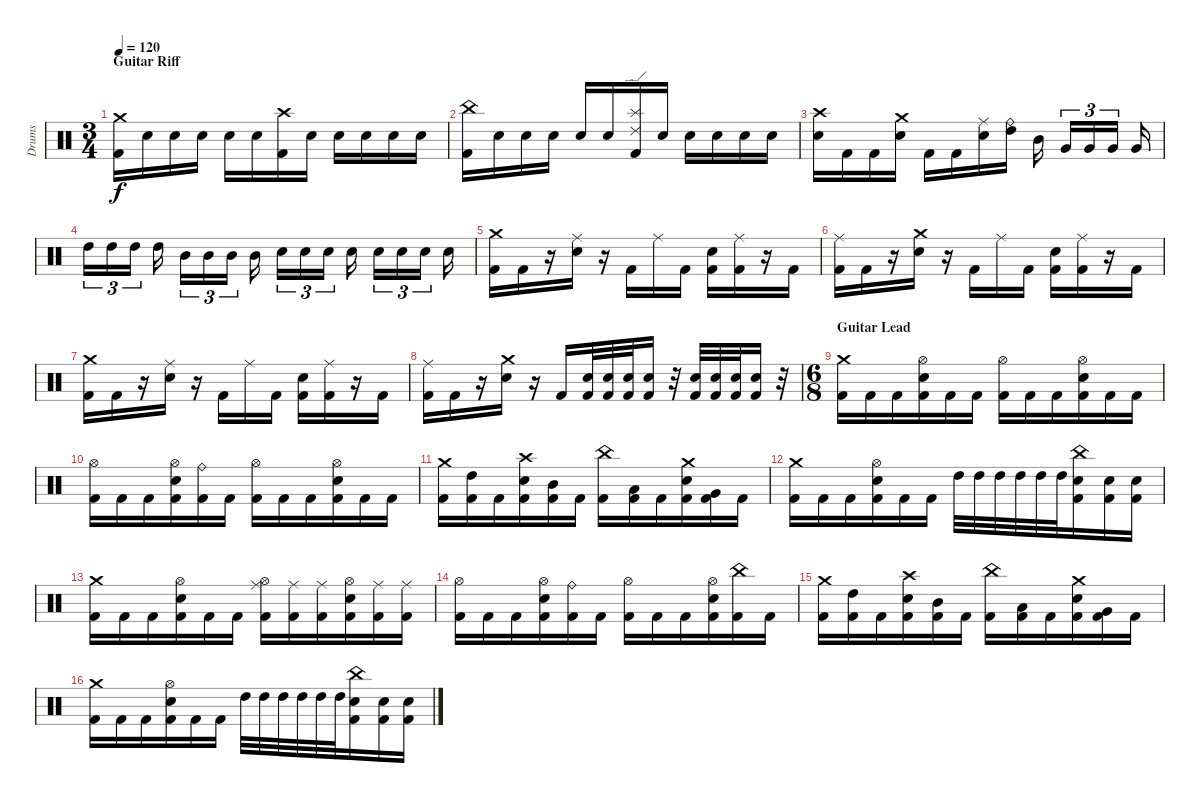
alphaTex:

\track ("Drums" "Drums") {instrument percussion}
\staff {score}
\articulation defaults
\ts (3 4)
\section ("" "Guitar Riff")
\tempo 120
\clef neutral
\ks c
("Crash medium (hit)" "Kick (hit) 2").16{dy f} "Electric Snare (hit)".16 "Electric Snare (hit)".16 "Electric Snare (hit)".16 "Electric Snare (hit)".16 "Electric Snare (hit)".16 ("Crash high (hit)" "Kick (hit) 2").16 "Electric Snare (hit)".16 "Electric Snare (hit)".16 "Electric Snare (hit)".16 "Electric Snare (hit)".16 "Electric Snare (hit)".16 |
("China (hit)" "Kick (hit) 2").16 "Electric Snare (hit)".16 "Electric Snare (hit)".16 "Electric Snare (hit)".16 "Electric Snare (hit)".16 "Electric Snare (hit)".16 ("Splash (hit)" "Ride (edge) 2" "Kick (hit) 2").16 "Electric Snare (hit)".16 "Electric Snare (hit)".16 "Electric Snare (hit)".16 "Electric Snare (hit)".16 "Electric Snare (hit)".16 |
("Crash high (hit)" "Electric Snare (hit)").16 "Kick (hit) 2".16 "Kick (hit) 2".16 ("Crash medium (hit)" "Electric Snare (hit)").16 "Kick (hit) 2".16 "Kick (hit) 2".16 ("Ride (middle)" "Electric Snare (hit)").16 ("Ride (bell)" "High Tom (hit)").16 "Mid Tom (hit)".16 "Very Low Tom (hit)".16{tu (3 2)} "Very Low Tom (hit)".16{tu (3 2)} "Very Low Tom (hit)".16{tu (3 2)} "Very Low Tom (hit)".16 |
"High Tom (hit)".16{tu (3 2)} "High Tom (hit)".16{tu (3 2)} "High Tom (hit)".16{tu (3 2)} "High Tom (hit)".16 "Mid Tom (hit)".16{tu (3 2)} "Mid Tom (hit)".16{tu (3 2)} "Mid Tom (hit)".16{tu (3 2)} "Mid Tom (hit)".16 "Electric Snare (hit)".16{tu (3 2)} "Electric Snare (hit)".16{tu (3 2)} "Electric Snare (hit)".16{tu (3 2)} "Electric Snare (hit)".16 "Electric Snare (hit)".16{tu (3 2)} "Electric Snare (hit)".16{tu (3 2)} "Electric Snare (hit)".16{tu (3 2)} "Electric Snare (hit)".16 |
("Crash medium (hit)" "Kick (hit) 2").16 "Kick (hit) 2".16 r.16 ("Ride (middle)" "Electric Snare (hit)").16 r.16 "Kick (hit) 2".16 "Ride (middle)".16 "Kick (hit) 2".16 ("Electric Snare (hit)" "Kick (hit) 2").16 ("Ride (middle)" "Kick (hit) 2").16 r.16 "Kick (hit) 2".16 |
("Ride (middle)" "Kick (hit) 2").16 "Kick (hit) 2".16 r.16 ("Crash medium (hit)" "Electric Snare (hit)").16 r.16 "Kick (hit) 2".16 "Ride (middle)".16 "Kick (hit) 2".16 ("Electric Snare (hit)" "Kick (hit) 2").16 ("Ride (middle)" "Kick (hit) 2").16 r.16 "Kick (hit) 2".16 |
("Crash medium (hit)" "Kick (hit) 2").16 "Kick (hit) 2".16 r.16 ("Ride (middle)" "Electric Snare (hit)").16 r.16 "Kick (hit) 2".16 "Ride (middle)".16 "Kick (hit) 2".16 ("Electric Snare (hit)" "Kick (hit) 2").16 ("Ride (middle)" "Kick (hit) 2").16 r.16 "Kick (hit) 2".16 |
("Ride (middle)" "Kick (hit) 2").16 "Kick (hit) 2".16 r.16 ("Crash medium (hit)" "Electric Snare (hit)").16 r.16 "Kick (hit) 2".16 ("Electric Snare (hit)" "Kick (hit) 2").32 ("Electric Snare (hit)" "Kick (hit) 2").32 ("Electric Snare (hit)" "Kick (hit) 2").32 ("Electric Snare (hit)" "Kick (hit) 2").16 r.32 ("Electric Snare (hit)" "Kick (hit) 2").32 ("Electric Snare (hit)" "Kick (hit) 2").32 ("Electric Snare (hit)" "Kick (hit) 2").32 ("Electric Snare (hit)" "Kick (hit) 2").16 r.32 |
\ts (6 8)
\section ("" "Guitar Lead")
("Crash medium (hit)" "Kick (hit) 2").16 "Kick (hit) 2".16 "Kick (hit) 2".16 ("Hi-Hat (open)" "Electric Snare (hit)" "Kick (hit) 2").16 "Kick (hit) 2".16 "Kick (hit) 2".16 ("Hi-Hat (open)" "Kick (hit) 2").16 "Kick (hit) 2".16 "Kick (hit) 2".16 ("Hi-Hat (open)" "Electric Snare (hit)" "Kick (hit) 2").16 "Kick (hit) 2".16 "Kick (hit) 2".16 |
("Hi-Hat (open)" "Kick (hit) 2").16 "Kick (hit) 2".16 "Kick (hit) 2".16 ("Hi-Hat (open)" "Electric Snare (hit)" "Kick (hit) 2").16 ("Ride (bell)" "Kick (hit) 2").16 "Kick (hit) 2".16 ("Hi-Hat (open)" "Kick (hit) 2").16 "Kick (hit) 2".16 "Kick (hit) 2".16 ("Hi-Hat (open)" "Electric Snare (hit)" "Kick (hit) 2").16 "Kick (hit) 2".16 "Kick (hit) 2".16 |
("Crash medium (hit)" "Kick (hit) 2").16 ("High Tom (hit)" "Kick (hit) 2").16 "Kick (hit) 2".16 ("Crash high (hit)" "Electric Snare (hit)" "Kick (hit) 2").16 ("Mid Tom (hit)" "Kick (hit) 2").16 "Kick (hit) 2".16 ("China (hit)" "Kick (hit) 2").16 ("Low Tom (hit)" "Kick (hit) 2").16 "Kick (hit) 2".16 ("Crash medium (hit)" "Electric Snare (hit)" "Kick (hit) 2").16 ("Very Low Tom (hit)" "Kick (hit) 2").16 "Kick (hit) 2".16 |
("Crash medium (hit)" "Kick (hit) 2").16 "Kick (hit) 2".16 "Kick (hit) 2".16 ("Hi-Hat (open)" "Electric Snare (hit)" "Kick (hit) 2").16 "Kick (hit) 2".16 "Kick (hit) 2".16 "High Tom (hit)".32 "High Tom (hit)".32 "High Tom (hit)".32 "High Tom (hit)".32 "High Tom (hit)".32 "High Tom (hit)".32 ("China (hit)" "Electric Snare (hit)" "Kick (hit) 2").16 ("Electric Snare (hit)" "Kick (hit) 2").16 ("Electric Snare (hit)" "Kick (hit) 2").16 |
("Crash medium (hit)" "Kick (hit) 2").16 "Kick (hit) 2".16 "Kick (hit) 2".16 ("Hi-Hat (open)" "Electric Snare (hit)" "Kick (hit) 2").16 "Kick (hit) 2".16 "Kick (hit) 2".16 ("Ride (middle)" "Hi-Hat (open)" "Kick (hit) 2").16 ("Ride (middle)" "Kick (hit) 2").16 ("Ride (middle)" "Kick (hit) 2").16 ("Hi-Hat (open)" "Electric Snare (hit)" "Kick (hit) 2").16 ("Ride (middle)" "Kick (hit) 2").16 ("Ride (middle)" "Kick (hit) 2").16 |
("Hi-Hat (open)" "Kick (hit) 2").16 "Kick (hit) 2".16 "Kick (hit) 2".16 ("Hi-Hat (open)" "Electric Snare (hit)" "Kick (hit) 2").16 ("Ride (bell)" "Kick (hit) 2").16 "Kick (hit) 2".16 ("Hi-Hat (open)" "Kick (hit) 2").16 "Kick (hit) 2".16 "Kick (hit) 2".16 ("Hi-Hat (open)" "Electric Snare (hit)" "Kick (hit) 2").16 ("China (hit)" "Kick (hit) 2").16 "Kick (hit) 2".16 |
("Crash medium (hit)" "Kick (hit) 2").16 ("High Tom (hit)" "Kick (hit) 2").16 "Kick (hit) 2".16 ("Crash high (hit)" "Electric Snare (hit)" "Kick (hit) 2").16 ("Mid Tom (hit)" "Kick (hit) 2").16 "Kick (hit) 2".16 ("China (hit)" "Kick (hit) 2").16 ("Low Tom (hit)" "Kick (hit) 2").16 "Kick (hit) 2".16 ("Crash medium (hit)" "Electric Snare (hit)" "Kick (hit) 2").16 ("Very Low Tom (hit)" "Kick (hit) 2").16 "Kick (hit) 2".16 |
("Crash medium (hit)" "Kick (hit) 2").16 "Kick (hit) 2".16 "Kick (hit) 2".16 ("Hi-Hat (open)" "Electric Snare (hit)" "Kick (hit) 2").16 "Kick (hit) 2".16 "Kick (hit) 2".16 "High Tom (hit)".32 "High Tom (hit)".32 "High Tom (hit)".32 "High Tom (hit)".32 "High Tom (hit)".32 "High Tom (hit)".32 ("China (hit)" "Electric Snare (hit)" "Kick (hit) 2").16 ("Electric Snare (hit)" "Kick (hit) 2").16 ("Electric Snare (hit)" "Kick (hit) 2").16
